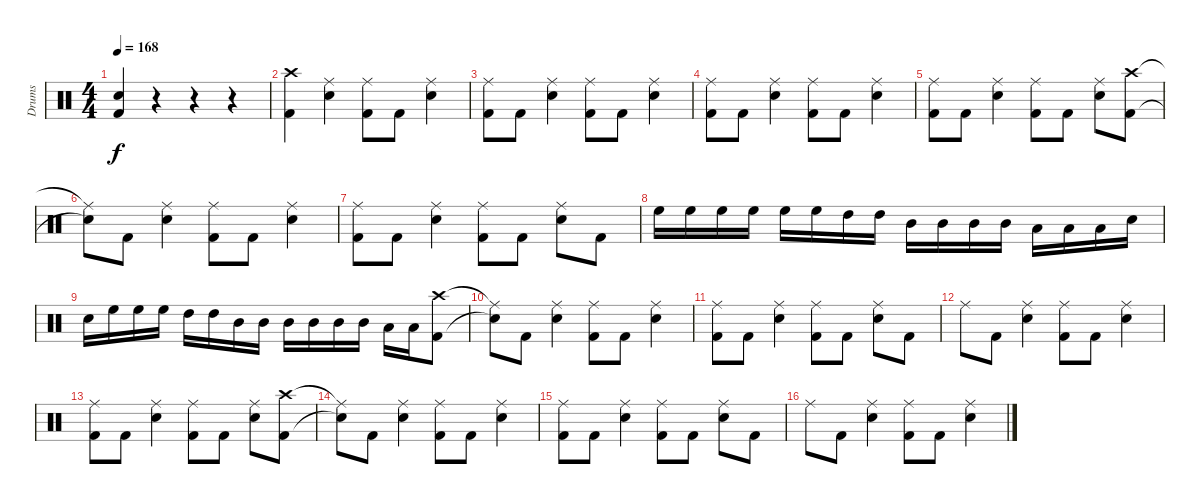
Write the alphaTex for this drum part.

\track ("Drums" "Drums") {instrument percussion}
\staff {score}
\articulation defaults
\ts (4 4)
\tempo 168
\clef neutral
\ks c
("Electric Snare (hit)" "Kick (hit) 2").4{dy f} r.4 r.4 r.4 |
("Crash high (hit)" "Kick (hit) 2").4 ("Ride (middle)" "Electric Snare (hit)").4 ("Ride (middle)" "Kick (hit) 2").8 "Kick (hit) 2".8 ("Ride (middle)" "Electric Snare (hit)").4 |
("Ride (middle)" "Kick (hit) 2").8 "Kick (hit) 2".8 ("Ride (middle)" "Electric Snare (hit)").4 ("Ride (middle)" "Kick (hit) 2").8 "Kick (hit) 2".8 ("Ride (middle)" "Electric Snare (hit)").4 |
("Ride (middle)" "Kick (hit) 2").8 "Kick (hit) 2".8 ("Ride (middle)" "Electric Snare (hit)").4 ("Ride (middle)" "Kick (hit) 2").8 "Kick (hit) 2".8 ("Ride (middle)" "Electric Snare (hit)").4 |
("Ride (middle)" "Kick (hit) 2").8 "Kick (hit) 2".8 ("Ride (middle)" "Electric Snare (hit)").4 ("Ride (middle)" "Kick (hit) 2").8 "Kick (hit) 2".8 ("Ride (middle)" "Electric Snare (hit)").8 ("Crash high (hit)" "Kick (hit) 2").8 |
("Ride (middle)"{t} "Snare (hit)"{t}).8 "Kick (hit) 2".8 ("Ride (middle)" "Electric Snare (hit)").4 ("Ride (middle)" "Kick (hit) 2").8 "Kick (hit) 2".8 ("Ride (middle)" "Electric Snare (hit)").4 |
("Ride (middle)" "Kick (hit) 2").8 "Kick (hit) 2".8 ("Ride (middle)" "Electric Snare (hit)").4 ("Ride (middle)" "Kick (hit) 2").8 "Kick (hit) 2".8 ("Ride (middle)" "Electric Snare (hit)").8 "Kick (hit) 2".8 |
"High Floor Tom (hit)".16 "High Floor Tom (hit)".16 "High Floor Tom (hit)".16 "High Floor Tom (hit)".16 "High Floor Tom (hit)".16 "High Floor Tom (hit)".16 "High Tom (hit)".16 "High Tom (hit)".16 "Mid Tom (hit)".16 "Mid Tom (hit)".16 "Mid Tom (hit)".16 "Mid Tom (hit)".16 "Low Tom (hit)".16 "Low Tom (hit)".16 "Low Tom (hit)".16 "Electric Snare (hit)".16 |
"Electric Snare (hit)".16 "High Floor Tom (hit)".16 "High Floor Tom (hit)".16 "High Floor Tom (hit)".16 "High Tom (hit)".16 "High Tom (hit)".16 "Mid Tom (hit)".16 "Mid Tom (hit)".16 "Mid Tom (hit)".16 "Mid Tom (hit)".16 "Mid Tom (hit)".16 "Mid Tom (hit)".16 "Low Tom (hit)".16 "Low Tom (hit)".16 ("Crash high (hit)" "Kick (hit) 2").8 |
("Ride (middle)"{t} "Snare (hit)"{t}).8 "Kick (hit) 2".8 ("Ride (middle)" "Electric Snare (hit)").4 ("Ride (middle)" "Kick (hit) 2").8 "Kick (hit) 2".8 ("Ride (middle)" "Electric Snare (hit)").4 |
("Ride (middle)" "Kick (hit) 2").8 "Kick (hit) 2".8 ("Ride (middle)" "Electric Snare (hit)").4 ("Ride (middle)" "Kick (hit) 2").8 "Kick (hit) 2".8 ("Ride (middle)" "Electric Snare (hit)").8 "Kick (hit) 2".8 |
"Ride (middle)".8 "Kick (hit) 2".8 ("Ride (middle)" "Electric Snare (hit)").4 ("Ride (middle)" "Kick (hit) 2").8 "Kick (hit) 2".8 ("Ride (middle)" "Electric Snare (hit)").4 |
("Ride (middle)" "Kick (hit) 2").8 "Kick (hit) 2".8 ("Ride (middle)" "Electric Snare (hit)").4 ("Ride (middle)" "Kick (hit) 2").8 "Kick (hit) 2".8 ("Ride (middle)" "Electric Snare (hit)").8 ("Crash high (hit)" "Kick (hit) 2").8 |
("Ride (middle)"{t} "Snare (hit)"{t}).8 "Kick (hit) 2".8 ("Ride (middle)" "Electric Snare (hit)").4 ("Ride (middle)" "Kick (hit) 2").8 "Kick (hit) 2".8 ("Ride (middle)" "Electric Snare (hit)").4 |
("Ride (middle)" "Kick (hit) 2").8 "Kick (hit) 2".8 ("Ride (middle)" "Electric Snare (hit)").4 ("Ride (middle)" "Kick (hit) 2").8 "Kick (hit) 2".8 ("Ride (middle)" "Electric Snare (hit)").8 "Kick (hit) 2".8 |
"Ride (middle)".8 "Kick (hit) 2".8 ("Ride (middle)" "Electric Snare (hit)").4 ("Ride (middle)" "Kick (hit) 2").8 "Kick (hit) 2".8 ("Ride (middle)" "Electric Snare (hit)").4
